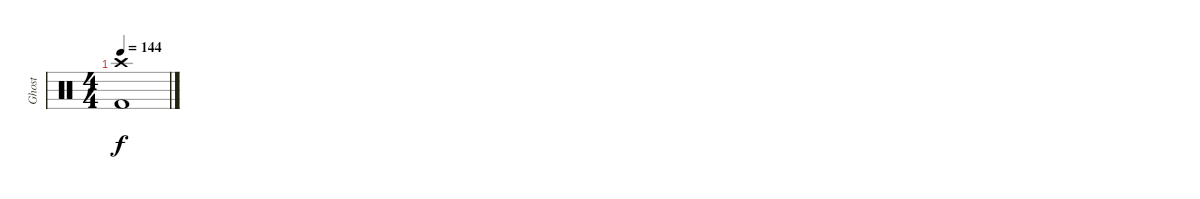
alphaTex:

\track ("Ghost" "Ghost") {instrument percussion}
\staff {score}
\articulation defaults
\ts (4 4)
\tempo 144
\clef neutral
\ks c
("Crash high (hit)" "Kick (hit) 2").1{dy f}
